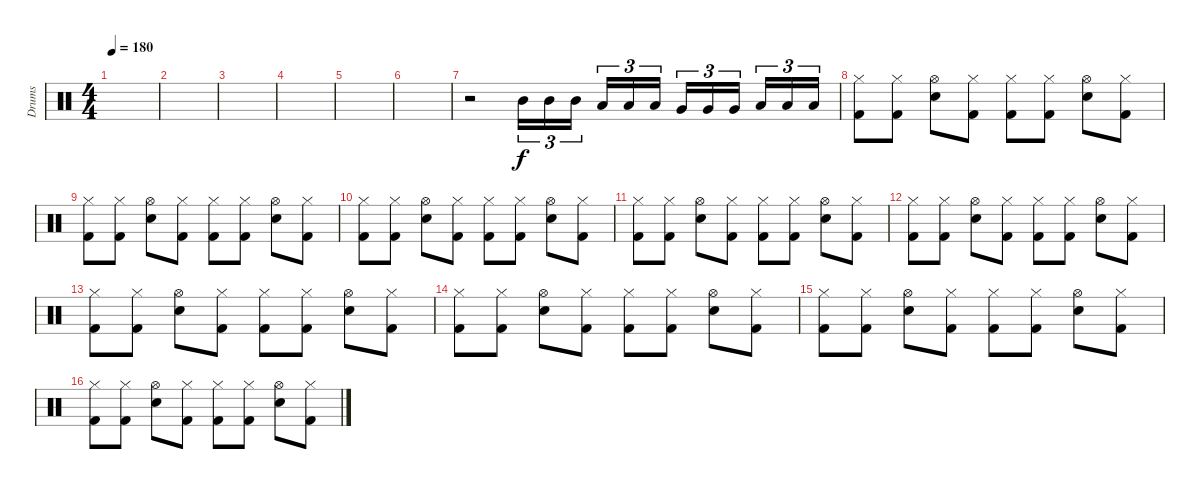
\track ("Drums" "Drums") {instrument percussion}
\staff {score}
\articulation defaults
\ts (4 4)
\tempo 180
\clef neutral
\ks c
|
|
|
|
|
|
r.2 "Mid Tom (hit)".16{tu (3 2)} "Mid Tom (hit)".16{tu (3 2)} "Mid Tom (hit)".16{tu (3 2) beam splitsecondary} "Low Tom (hit)".16{tu (3 2)} "Low Tom (hit)".16{tu (3 2)} "Low Tom (hit)".16{tu (3 2)} "Very Low Tom (hit)".16{tu (3 2)} "Very Low Tom (hit)".16{tu (3 2)} "Very Low Tom (hit)".16{tu (3 2) beam splitsecondary} "Low Floor Tom (hit)".16{tu (3 2)} "Low Floor Tom (hit)".16{tu (3 2)} "Low Floor Tom (hit)".16{tu (3 2)} |
("Hi-Hat (closed)" "Kick (hit) 2").8 ("Hi-Hat (closed)" "Kick (hit) 2").8 ("Hi-Hat (open)" "Snare (hit) 2").8 ("Hi-Hat (closed)" "Kick (hit) 2").8 ("Hi-Hat (closed)" "Kick (hit) 2").8 ("Hi-Hat (closed)" "Kick (hit) 2").8 ("Hi-Hat (open)" "Snare (hit) 2").8 ("Hi-Hat (closed)" "Kick (hit) 2").8 |
("Hi-Hat (closed)" "Kick (hit) 2").8 ("Hi-Hat (closed)" "Kick (hit) 2").8 ("Hi-Hat (open)" "Snare (hit) 2").8 ("Hi-Hat (closed)" "Kick (hit) 2").8 ("Hi-Hat (closed)" "Kick (hit) 2").8 ("Hi-Hat (closed)" "Kick (hit) 2").8 ("Hi-Hat (open)" "Snare (hit) 2").8 ("Hi-Hat (closed)" "Kick (hit) 2").8 |
("Hi-Hat (closed)" "Kick (hit) 2").8 ("Hi-Hat (closed)" "Kick (hit) 2").8 ("Hi-Hat (open)" "Snare (hit) 2").8 ("Hi-Hat (closed)" "Kick (hit) 2").8 ("Hi-Hat (closed)" "Kick (hit) 2").8 ("Hi-Hat (closed)" "Kick (hit) 2").8 ("Hi-Hat (open)" "Snare (hit) 2").8 ("Hi-Hat (closed)" "Kick (hit) 2").8 |
("Hi-Hat (closed)" "Kick (hit) 2").8 ("Hi-Hat (closed)" "Kick (hit) 2").8 ("Hi-Hat (open)" "Snare (hit) 2").8 ("Hi-Hat (closed)" "Kick (hit) 2").8 ("Hi-Hat (closed)" "Kick (hit) 2").8 ("Hi-Hat (closed)" "Kick (hit) 2").8 ("Hi-Hat (open)" "Snare (hit) 2").8 ("Hi-Hat (closed)" "Kick (hit) 2").8 |
("Hi-Hat (closed)" "Kick (hit) 2").8 ("Hi-Hat (closed)" "Kick (hit) 2").8 ("Hi-Hat (open)" "Snare (hit) 2").8 ("Hi-Hat (closed)" "Kick (hit) 2").8 ("Hi-Hat (closed)" "Kick (hit) 2").8 ("Hi-Hat (closed)" "Kick (hit) 2").8 ("Hi-Hat (open)" "Snare (hit) 2").8 ("Hi-Hat (closed)" "Kick (hit) 2").8 |
("Hi-Hat (closed)" "Kick (hit) 2").8 ("Hi-Hat (closed)" "Kick (hit) 2").8 ("Hi-Hat (open)" "Snare (hit) 2").8 ("Hi-Hat (closed)" "Kick (hit) 2").8 ("Hi-Hat (closed)" "Kick (hit) 2").8 ("Hi-Hat (closed)" "Kick (hit) 2").8 ("Hi-Hat (open)" "Snare (hit) 2").8 ("Hi-Hat (closed)" "Kick (hit) 2").8 |
("Hi-Hat (closed)" "Kick (hit) 2").8 ("Hi-Hat (closed)" "Kick (hit) 2").8 ("Hi-Hat (open)" "Snare (hit) 2").8 ("Hi-Hat (closed)" "Kick (hit) 2").8 ("Hi-Hat (closed)" "Kick (hit) 2").8 ("Hi-Hat (closed)" "Kick (hit) 2").8 ("Hi-Hat (open)" "Snare (hit) 2").8 ("Hi-Hat (closed)" "Kick (hit) 2").8 |
("Hi-Hat (closed)" "Kick (hit) 2").8 ("Hi-Hat (closed)" "Kick (hit) 2").8 ("Hi-Hat (open)" "Snare (hit) 2").8 ("Hi-Hat (closed)" "Kick (hit) 2").8 ("Hi-Hat (closed)" "Kick (hit) 2").8 ("Hi-Hat (closed)" "Kick (hit) 2").8 ("Hi-Hat (open)" "Snare (hit) 2").8 ("Hi-Hat (closed)" "Kick (hit) 2").8 |
("Hi-Hat (closed)" "Kick (hit) 2").8 ("Hi-Hat (closed)" "Kick (hit) 2").8 ("Hi-Hat (open)" "Snare (hit) 2").8 ("Hi-Hat (closed)" "Kick (hit) 2").8 ("Hi-Hat (closed)" "Kick (hit) 2").8 ("Hi-Hat (closed)" "Kick (hit) 2").8 ("Hi-Hat (open)" "Snare (hit) 2").8 ("Hi-Hat (closed)" "Kick (hit) 2").8
